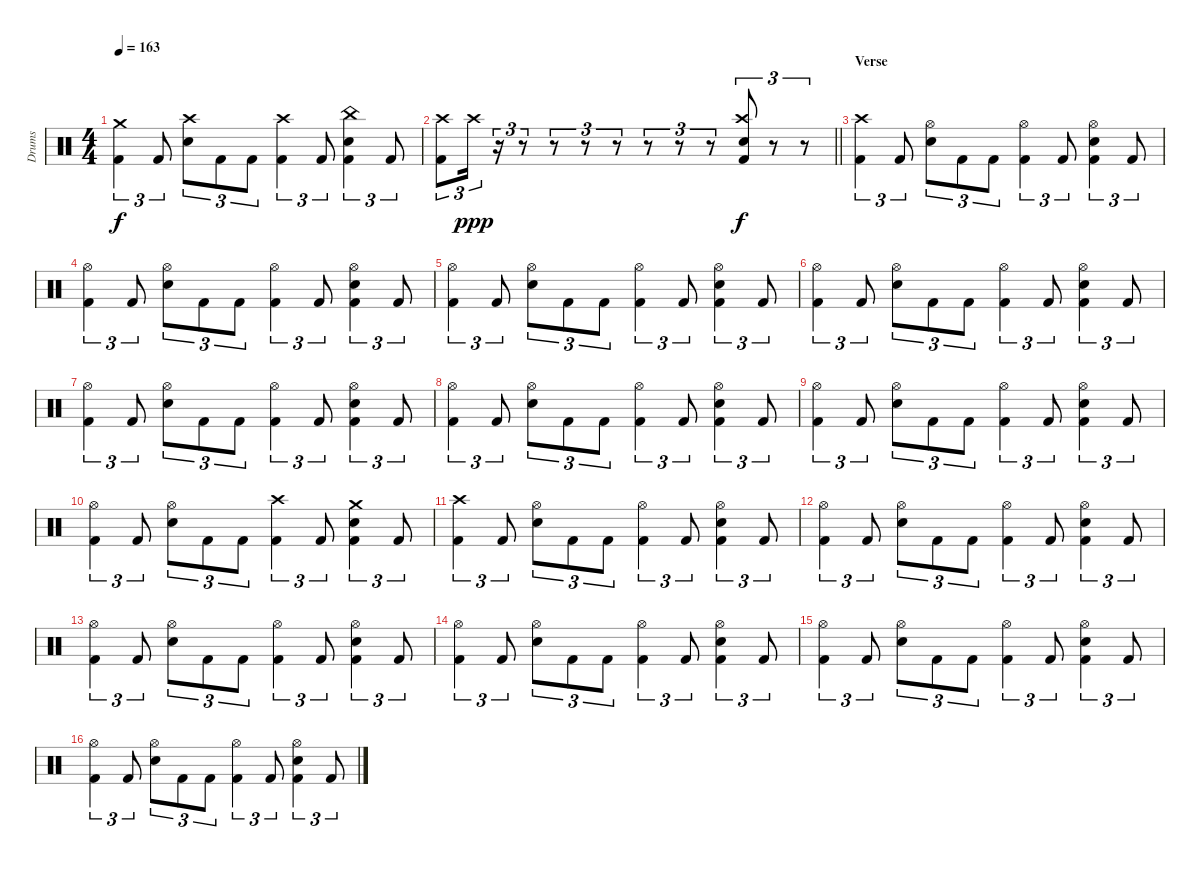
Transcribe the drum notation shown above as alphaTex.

\track ("Drums" "Drums") {instrument percussion}
\staff {score}
\articulation defaults
\ts (4 4)
\tempo 163
\clef neutral
\ks c
("Crash medium (hit)" "Kick (hit) 2").4{tu (3 2) dy f} "Kick (hit) 2".8{tu (3 2)} ("Crash high (hit)" "Electric Snare (hit)").8{tu (3 2)} "Kick (hit) 2".8{tu (3 2)} "Kick (hit) 2".8{tu (3 2)} ("Crash high (hit)" "Kick (hit) 2").4{tu (3 2)} "Kick (hit) 2".8{tu (3 2)} ("China (hit)" "Electric Snare (hit)" "Kick (hit) 2").4{tu (3 2)} "Kick (hit) 2".8{tu (3 2)} |
\barLineRight lightlight
("Crash high (hit)" "Kick (hit) 2").8{tu (3 2)} "Crash high (hit)".16{tu (3 2) dy ppp} r.16{tu (3 2)} r.8{tu (3 2)} r.8{tu (3 2)} r.8{tu (3 2)} r.8{tu (3 2)} r.8{tu (3 2)} r.8{tu (3 2)} r.8{tu (3 2)} ("Crash high (hit)" "Electric Snare (hit)" "Kick (hit) 2").8{tu (3 2) dy f} r.8{tu (3 2)} r.8{tu (3 2)} |
\section ("" "Verse")
("Crash high (hit)" "Kick (hit) 2").4{tu (3 2)} "Kick (hit) 2".8{tu (3 2)} ("Hi-Hat (open)" "Electric Snare (hit)").8{tu (3 2)} "Kick (hit) 2".8{tu (3 2)} "Kick (hit) 2".8{tu (3 2)} ("Hi-Hat (open)" "Kick (hit) 2").4{tu (3 2)} "Kick (hit) 2".8{tu (3 2)} ("Hi-Hat (open)" "Electric Snare (hit)" "Kick (hit) 2").4{tu (3 2)} "Kick (hit) 2".8{tu (3 2)} |
("Hi-Hat (open)" "Kick (hit) 2").4{tu (3 2)} "Kick (hit) 2".8{tu (3 2)} ("Hi-Hat (open)" "Electric Snare (hit)").8{tu (3 2)} "Kick (hit) 2".8{tu (3 2)} "Kick (hit) 2".8{tu (3 2)} ("Hi-Hat (open)" "Kick (hit) 2").4{tu (3 2)} "Kick (hit) 2".8{tu (3 2)} ("Hi-Hat (open)" "Electric Snare (hit)" "Kick (hit) 2").4{tu (3 2)} "Kick (hit) 2".8{tu (3 2)} |
("Hi-Hat (open)" "Kick (hit) 2").4{tu (3 2)} "Kick (hit) 2".8{tu (3 2)} ("Hi-Hat (open)" "Electric Snare (hit)").8{tu (3 2)} "Kick (hit) 2".8{tu (3 2)} "Kick (hit) 2".8{tu (3 2)} ("Hi-Hat (open)" "Kick (hit) 2").4{tu (3 2)} "Kick (hit) 2".8{tu (3 2)} ("Hi-Hat (open)" "Electric Snare (hit)" "Kick (hit) 2").4{tu (3 2)} "Kick (hit) 2".8{tu (3 2)} |
("Hi-Hat (open)" "Kick (hit) 2").4{tu (3 2)} "Kick (hit) 2".8{tu (3 2)} ("Hi-Hat (open)" "Electric Snare (hit)").8{tu (3 2)} "Kick (hit) 2".8{tu (3 2)} "Kick (hit) 2".8{tu (3 2)} ("Hi-Hat (open)" "Kick (hit) 2").4{tu (3 2)} "Kick (hit) 2".8{tu (3 2)} ("Hi-Hat (open)" "Electric Snare (hit)" "Kick (hit) 2").4{tu (3 2)} "Kick (hit) 2".8{tu (3 2)} |
("Hi-Hat (open)" "Kick (hit) 2").4{tu (3 2)} "Kick (hit) 2".8{tu (3 2)} ("Hi-Hat (open)" "Electric Snare (hit)").8{tu (3 2)} "Kick (hit) 2".8{tu (3 2)} "Kick (hit) 2".8{tu (3 2)} ("Hi-Hat (open)" "Kick (hit) 2").4{tu (3 2)} "Kick (hit) 2".8{tu (3 2)} ("Hi-Hat (open)" "Electric Snare (hit)" "Kick (hit) 2").4{tu (3 2)} "Kick (hit) 2".8{tu (3 2)} |
("Hi-Hat (open)" "Kick (hit) 2").4{tu (3 2)} "Kick (hit) 2".8{tu (3 2)} ("Hi-Hat (open)" "Electric Snare (hit)").8{tu (3 2)} "Kick (hit) 2".8{tu (3 2)} "Kick (hit) 2".8{tu (3 2)} ("Hi-Hat (open)" "Kick (hit) 2").4{tu (3 2)} "Kick (hit) 2".8{tu (3 2)} ("Hi-Hat (open)" "Electric Snare (hit)" "Kick (hit) 2").4{tu (3 2)} "Kick (hit) 2".8{tu (3 2)} |
("Hi-Hat (open)" "Kick (hit) 2").4{tu (3 2)} "Kick (hit) 2".8{tu (3 2)} ("Hi-Hat (open)" "Electric Snare (hit)").8{tu (3 2)} "Kick (hit) 2".8{tu (3 2)} "Kick (hit) 2".8{tu (3 2)} ("Hi-Hat (open)" "Kick (hit) 2").4{tu (3 2)} "Kick (hit) 2".8{tu (3 2)} ("Hi-Hat (open)" "Electric Snare (hit)" "Kick (hit) 2").4{tu (3 2)} "Kick (hit) 2".8{tu (3 2)} |
("Hi-Hat (open)" "Kick (hit) 2").4{tu (3 2)} "Kick (hit) 2".8{tu (3 2)} ("Hi-Hat (open)" "Electric Snare (hit)").8{tu (3 2)} "Kick (hit) 2".8{tu (3 2)} "Kick (hit) 2".8{tu (3 2)} ("Crash high (hit)" "Kick (hit) 2").4{tu (3 2)} "Kick (hit) 2".8{tu (3 2)} ("Crash medium (hit)" "Electric Snare (hit)" "Kick (hit) 2").4{tu (3 2)} "Kick (hit) 2".8{tu (3 2)} |
("Crash high (hit)" "Kick (hit) 2").4{tu (3 2)} "Kick (hit) 2".8{tu (3 2)} ("Hi-Hat (open)" "Electric Snare (hit)").8{tu (3 2)} "Kick (hit) 2".8{tu (3 2)} "Kick (hit) 2".8{tu (3 2)} ("Hi-Hat (open)" "Kick (hit) 2").4{tu (3 2)} "Kick (hit) 2".8{tu (3 2)} ("Hi-Hat (open)" "Electric Snare (hit)" "Kick (hit) 2").4{tu (3 2)} "Kick (hit) 2".8{tu (3 2)} |
("Hi-Hat (open)" "Kick (hit) 2").4{tu (3 2)} "Kick (hit) 2".8{tu (3 2)} ("Hi-Hat (open)" "Electric Snare (hit)").8{tu (3 2)} "Kick (hit) 2".8{tu (3 2)} "Kick (hit) 2".8{tu (3 2)} ("Hi-Hat (open)" "Kick (hit) 2").4{tu (3 2)} "Kick (hit) 2".8{tu (3 2)} ("Hi-Hat (open)" "Electric Snare (hit)" "Kick (hit) 2").4{tu (3 2)} "Kick (hit) 2".8{tu (3 2)} |
("Hi-Hat (open)" "Kick (hit) 2").4{tu (3 2)} "Kick (hit) 2".8{tu (3 2)} ("Hi-Hat (open)" "Electric Snare (hit)").8{tu (3 2)} "Kick (hit) 2".8{tu (3 2)} "Kick (hit) 2".8{tu (3 2)} ("Hi-Hat (open)" "Kick (hit) 2").4{tu (3 2)} "Kick (hit) 2".8{tu (3 2)} ("Hi-Hat (open)" "Electric Snare (hit)" "Kick (hit) 2").4{tu (3 2)} "Kick (hit) 2".8{tu (3 2)} |
("Hi-Hat (open)" "Kick (hit) 2").4{tu (3 2)} "Kick (hit) 2".8{tu (3 2)} ("Hi-Hat (open)" "Electric Snare (hit)").8{tu (3 2)} "Kick (hit) 2".8{tu (3 2)} "Kick (hit) 2".8{tu (3 2)} ("Hi-Hat (open)" "Kick (hit) 2").4{tu (3 2)} "Kick (hit) 2".8{tu (3 2)} ("Hi-Hat (open)" "Electric Snare (hit)" "Kick (hit) 2").4{tu (3 2)} "Kick (hit) 2".8{tu (3 2)} |
("Hi-Hat (open)" "Kick (hit) 2").4{tu (3 2)} "Kick (hit) 2".8{tu (3 2)} ("Hi-Hat (open)" "Electric Snare (hit)").8{tu (3 2)} "Kick (hit) 2".8{tu (3 2)} "Kick (hit) 2".8{tu (3 2)} ("Hi-Hat (open)" "Kick (hit) 2").4{tu (3 2)} "Kick (hit) 2".8{tu (3 2)} ("Hi-Hat (open)" "Electric Snare (hit)" "Kick (hit) 2").4{tu (3 2)} "Kick (hit) 2".8{tu (3 2)} |
("Hi-Hat (open)" "Kick (hit) 2").4{tu (3 2)} "Kick (hit) 2".8{tu (3 2)} ("Hi-Hat (open)" "Electric Snare (hit)").8{tu (3 2)} "Kick (hit) 2".8{tu (3 2)} "Kick (hit) 2".8{tu (3 2)} ("Hi-Hat (open)" "Kick (hit) 2").4{tu (3 2)} "Kick (hit) 2".8{tu (3 2)} ("Hi-Hat (open)" "Electric Snare (hit)" "Kick (hit) 2").4{tu (3 2)} "Kick (hit) 2".8{tu (3 2)}
